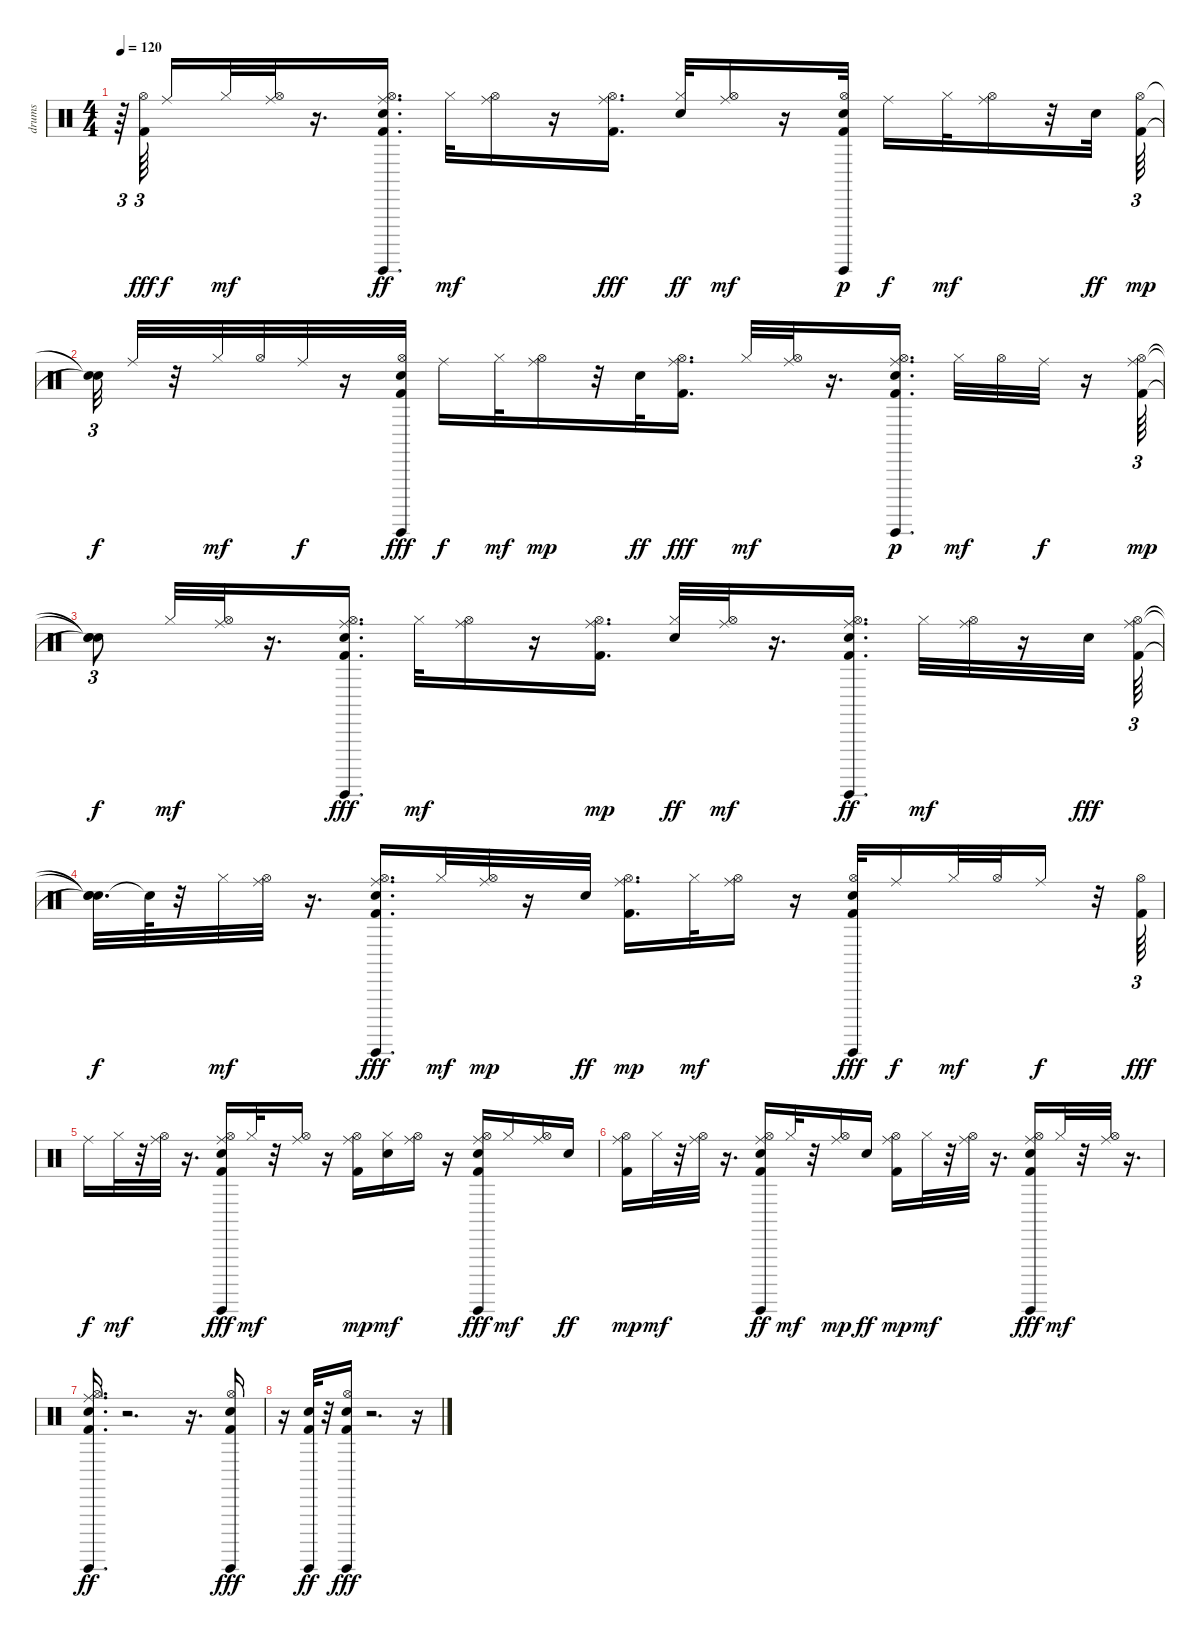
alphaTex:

\track ("drums                               " "drums     ") {instrument percussion}
\staff {score}
\articulation defaults
\ts (4 4)
\tempo 120
\clef neutral
\ks c
r.64{tu (3 2) dy mf} ("Hi-Hat (open)" "Kick (hit) 2").64{tu (3 2) dy fff beam splitsecondary} "Ride (middle)".16{dy f} "Hi-Hat (closed)".32{dy mf} ("Hi-Hat (open)" "Ride (middle)").32 r.16{d} ("Kick (hit) 2" "Hi-Hat (open)" "Electric Snare (hit)" "Guiro (hit)" "Ride (middle)").16{d dy ff} "Hi-Hat (closed)".32{dy mf} ("Hi-Hat (open)" "Ride (middle)").16 r.16 ("Ride (middle)" "Hi-Hat (open)" "Kick (hit) 2").16{d dy fff} ("Hi-Hat (closed)" "Electric Snare (hit)").32{dy ff} ("Hi-Hat (open)" "Ride (middle)").16{dy mf} r.16 ("Kick (hit) 2" "Electric Snare (hit)" "Hi-Hat (open)" "Guiro (hit)").32{dy p} "Ride (middle)".16{dy f} "Hi-Hat (closed)".32{dy mf} ("Hi-Hat (open)" "Ride (middle)").16 r.32 "Electric Snare (hit)".32{dy ff} ("Kick (hit) 2" "Hi-Hat (open)").64{tu (3 2) dy mp} |
("Snare (hit)"{t} "Snare (hit)"{t}).32{tu (3 2) dy f} "Ride (middle)".32 r.32 "Hi-Hat (closed)".32{dy mf} "Hi-Hat (open)".32 "Ride (middle)".32{dy f} r.16 ("Electric Snare (hit)" "Hi-Hat (open)" "Guiro (hit)" "Kick (hit) 2").32{dy fff} "Ride (middle)".16{dy f} "Hi-Hat (closed)".32{dy mf} ("Hi-Hat (open)" "Ride (middle)").16{dy mp} r.32 "Electric Snare (hit)".32{dy ff} ("Ride (middle)" "Hi-Hat (open)" "Kick (hit) 2").16{d dy fff} "Hi-Hat (closed)".32{dy mf} ("Hi-Hat (open)" "Ride (middle)").32 r.16{d} ("Electric Snare (hit)" "Kick (hit) 2" "Hi-Hat (open)" "Guiro (hit)" "Ride (middle)").16{d dy p} "Hi-Hat (closed)".32{dy mf} "Hi-Hat (open)".32 "Ride (middle)".32{dy f} r.16 ("Kick (hit) 2" "Hi-Hat (open)" "Ride (middle)").64{tu (3 2) dy mp} |
("Snare (hit)"{t} "Snare (hit)"{t} "Snare (hit)"{t}).8{tu (3 2) dy f} "Hi-Hat (closed)".32{dy mf} ("Ride (middle)" "Hi-Hat (open)").32 r.16{d} ("Hi-Hat (open)" "Electric Snare (hit)" "Kick (hit) 2" "Guiro (hit)" "Ride (middle)").16{d dy fff} "Hi-Hat (closed)".32{dy mf} ("Ride (middle)" "Hi-Hat (open)").16 r.16 ("Ride (middle)" "Kick (hit) 2" "Hi-Hat (open)").16{d dy mp} ("Hi-Hat (closed)" "Electric Snare (hit)").32{dy ff} ("Ride (middle)" "Hi-Hat (open)").32{dy mf} r.16{d} ("Ride (middle)" "Kick (hit) 2" "Guiro (hit)" "Hi-Hat (open)" "Electric Snare (hit)").16{d dy ff} "Hi-Hat (closed)".32{dy mf} ("Ride (middle)" "Hi-Hat (open)").32 r.16 "Electric Snare (hit)".32{dy fff} ("Ride (middle)" "Hi-Hat (open)" "Kick (hit) 2").64{tu (3 2)} |
("Snare (hit)"{t} "Snare (hit)"{t} "Snare (hit)"{t}).32{d dy f} "Snare (hit)"{t}.64 r.32 "Hi-Hat (closed)".32{dy mf} ("Ride (middle)" "Hi-Hat (open)").32 r.16{d} ("Electric Snare (hit)" "Guiro (hit)" "Hi-Hat (open)" "Kick (hit) 2" "Ride (middle)").16{d dy fff} "Hi-Hat (closed)".32{dy mf} ("Hi-Hat (open)" "Ride (middle)").32{dy mp} r.16 "Electric Snare (hit)".32{dy ff} ("Kick (hit) 2" "Hi-Hat (open)" "Ride (middle)").16{d dy mp} "Hi-Hat (closed)".32{dy mf} ("Ride (middle)" "Hi-Hat (open)").16 r.16 ("Guiro (hit)" "Electric Snare (hit)" "Hi-Hat (open)" "Kick (hit) 2").32{dy fff} "Ride (middle)".16{dy f} "Hi-Hat (closed)".32{dy mf} "Hi-Hat (open)".32 "Ride (middle)".16{dy f} r.32 ("Hi-Hat (open)" "Kick (hit) 2").64{tu (3 2) dy fff} |
"Ride (middle)".16{dy f} "Hi-Hat (closed)".32{dy mf} r.32 ("Hi-Hat (open)" "Ride (middle)").32 r.16{d} ("Hi-Hat (open)" "Electric Snare (hit)" "Guiro (hit)" "Kick (hit) 2" "Ride (middle)").16{dy fff} "Hi-Hat (closed)".32{dy mf} r.32 ("Hi-Hat (open)" "Ride (middle)").16 r.16 ("Ride (middle)" "Kick (hit) 2" "Hi-Hat (open)").16{dy mp} ("Electric Snare (hit)" "Hi-Hat (closed)").16{dy mf} ("Hi-Hat (open)" "Ride (middle)").16 r.16 ("Hi-Hat (open)" "Electric Snare (hit)" "Guiro (hit)" "Kick (hit) 2" "Ride (middle)").16{dy fff} "Hi-Hat (closed)".16{dy mf} ("Hi-Hat (open)" "Ride (middle)").16 "Electric Snare (hit)".16{dy ff} |
("Kick (hit) 2" "Hi-Hat (open)" "Ride (middle)").16{dy mp} "Hi-Hat (closed)".32{dy mf} r.32 ("Hi-Hat (open)" "Ride (middle)").32 r.16{d} ("Kick (hit) 2" "Hi-Hat (open)" "Guiro (hit)" "Electric Snare (hit)" "Ride (middle)").16{dy ff} "Hi-Hat (closed)".32{dy mf} r.32 ("Hi-Hat (open)" "Ride (middle)").16{dy mp} "Electric Snare (hit)".16{dy ff} ("Ride (middle)" "Kick (hit) 2" "Hi-Hat (open)").16{dy mp} "Hi-Hat (closed)".32{dy mf} r.32 ("Hi-Hat (open)" "Ride (middle)").32 r.16{d} ("Electric Snare (hit)" "Hi-Hat (open)" "Guiro (hit)" "Kick (hit) 2" "Ride (middle)").16{dy fff} "Hi-Hat (closed)".32{dy mf} r.32 ("Hi-Hat (open)" "Ride (middle)").32 r.16{d} |
("Kick (hit) 2" "Hi-Hat (open)" "Guiro (hit)" "Electric Snare (hit)" "Ride (middle)").16{d dy ff} r.2{d} r.16{d} ("Hi-Hat (open)" "Electric Snare (hit)" "Guiro (hit)" "Kick (hit) 2").16{dy fff} |
r.16 ("Kick (hit) 2" "Guiro (hit)" "Electric Snare (hit)").32{dy ff} r.32 ("Hi-Hat (open)" "Electric Snare (hit)" "Kick (hit) 2" "Guiro (hit)").16{dy fff} r.2{d} r.16
